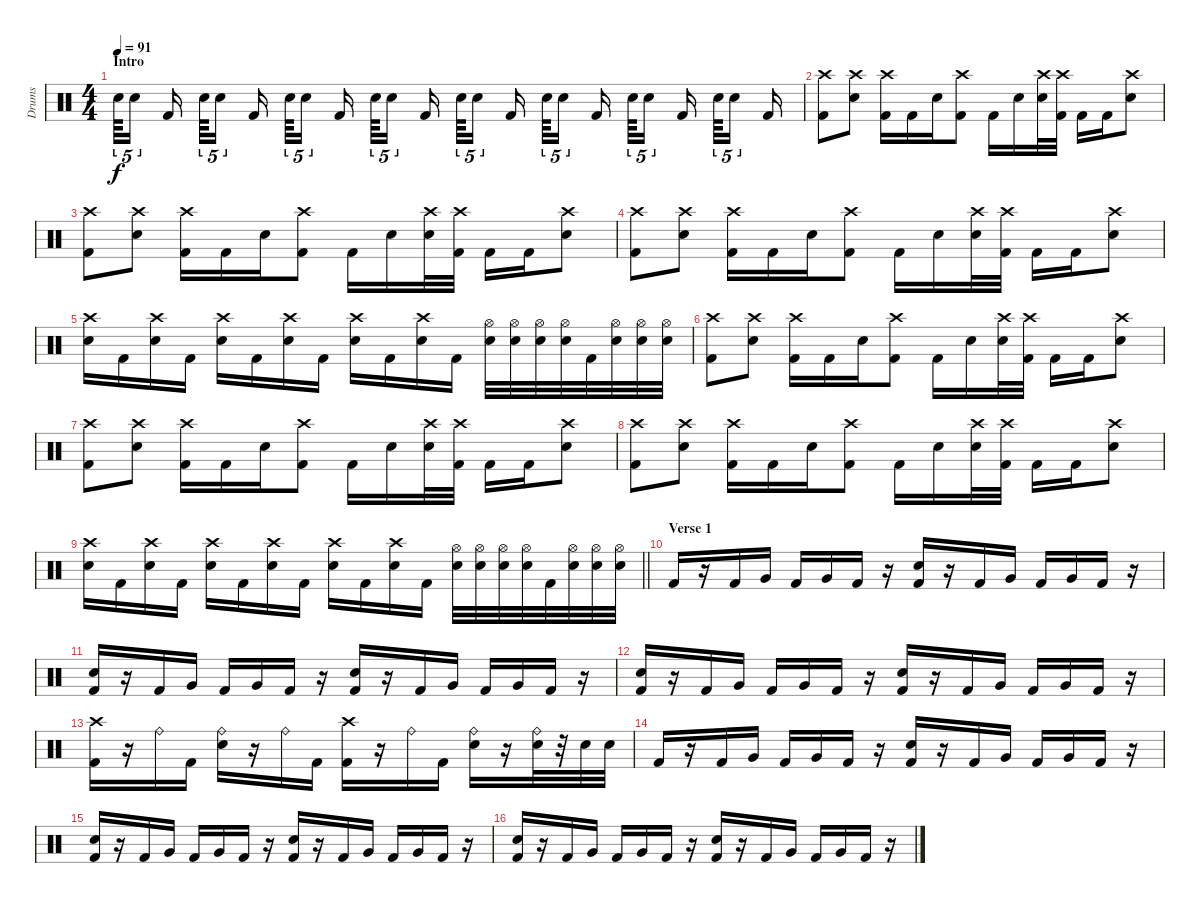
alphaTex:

\track ("Drums" "Drums") {instrument percussion}
\staff {score}
\articulation defaults
\ts (4 4)
\section ("" "Intro")
\tempo 91
\clef neutral
\ks c "Snare (hit) 2".64{tu (5 4) dy f} "Electric Snare (hit)".16{tu (5 4) beam splitsecondary} "Kick (hit) 2".16{beam splitsecondary} "Snare (hit) 2".64{tu (5 4)} "Electric Snare (hit)".16{tu (5 4) beam splitsecondary} "Kick (hit) 2".16 "Snare (hit) 2".64{tu (5 4)} "Electric Snare (hit)".16{tu (5 4) beam splitsecondary} "Kick (hit) 2".16{beam splitsecondary} "Snare (hit) 2".64{tu (5 4)} "Electric Snare (hit)".16{tu (5 4) beam splitsecondary} "Kick (hit) 2".16 "Snare (hit) 2".64{tu (5 4)} "Electric Snare (hit)".16{tu (5 4) beam splitsecondary} "Kick (hit) 2".16{beam splitsecondary} "Snare (hit) 2".64{tu (5 4)} "Electric Snare (hit)".16{tu (5 4) beam splitsecondary} "Kick (hit) 2".16 "Snare (hit) 2".64{tu (5 4)} "Electric Snare (hit)".16{tu (5 4) beam splitsecondary} "Kick (hit) 2".16{beam splitsecondary} "Snare (hit) 2".64{tu (5 4)} "Electric Snare (hit)".16{tu (5 4) beam splitsecondary} "Kick (hit) 2".16
|
("Crash high (hit)" "Kick (hit) 2").8 ("Crash high (hit)" "Electric Snare (hit)").8 ("Crash high (hit)" "Kick (hit) 2").16 "Kick (hit) 2".16 "Electric Snare (hit)".16 ("Crash high (hit)" "Kick (hit) 2").8 "Kick (hit) 2".16 "Electric Snare (hit)".16 ("Crash high (hit)" "Electric Snare (hit)").32 ("Crash high (hit)" "Kick (hit) 2").32 "Kick (hit) 2".16 "Kick (hit) 2".16 ("Crash high (hit)" "Electric Snare (hit)").8 |
("Crash high (hit)" "Kick (hit) 2").8 ("Crash high (hit)" "Electric Snare (hit)").8 ("Crash high (hit)" "Kick (hit) 2").16 "Kick (hit) 2".16 "Electric Snare (hit)".16 ("Crash high (hit)" "Kick (hit) 2").8 "Kick (hit) 2".16 "Electric Snare (hit)".16 ("Crash high (hit)" "Electric Snare (hit)").32 ("Crash high (hit)" "Kick (hit) 2").32 "Kick (hit) 2".16 "Kick (hit) 2".16 ("Crash high (hit)" "Electric Snare (hit)").8 |
("Crash high (hit)" "Kick (hit) 2").8 ("Crash high (hit)" "Electric Snare (hit)").8 ("Crash high (hit)" "Kick (hit) 2").16 "Kick (hit) 2".16 "Electric Snare (hit)".16 ("Crash high (hit)" "Kick (hit) 2").8 "Kick (hit) 2".16 "Electric Snare (hit)".16 ("Crash high (hit)" "Electric Snare (hit)").32 ("Crash high (hit)" "Kick (hit) 2").32 "Kick (hit) 2".16 "Kick (hit) 2".16 ("Crash high (hit)" "Electric Snare (hit)").8 |
("Crash high (hit)" "Electric Snare (hit)").16 "Kick (hit) 2".16 ("Crash high (hit)" "Electric Snare (hit)").16 "Kick (hit) 2".16 ("Crash high (hit)" "Electric Snare (hit)").16 "Kick (hit) 2".16 ("Crash high (hit)" "Electric Snare (hit)").16 "Kick (hit) 2".16 ("Crash high (hit)" "Electric Snare (hit)").16 "Kick (hit) 2".16 ("Crash high (hit)" "Electric Snare (hit)").16 "Kick (hit) 2".16 ("Hi-Hat (open)" "Electric Snare (hit)").32 ("Hi-Hat (open)" "Electric Snare (hit)").32 ("Hi-Hat (open)" "Electric Snare (hit)").32 ("Hi-Hat (open)" "Electric Snare (hit)").32 "Kick (hit) 2".32 ("Hi-Hat (open)" "Electric Snare (hit)").32 ("Hi-Hat (open)" "Electric Snare (hit)").32 ("Hi-Hat (open)" "Electric Snare (hit)").32 |
("Crash high (hit)" "Kick (hit) 2").8 ("Crash high (hit)" "Electric Snare (hit)").8 ("Crash high (hit)" "Kick (hit) 2").16 "Kick (hit) 2".16 "Electric Snare (hit)".16 ("Crash high (hit)" "Kick (hit) 2").8 "Kick (hit) 2".16 "Electric Snare (hit)".16 ("Crash high (hit)" "Electric Snare (hit)").32 ("Crash high (hit)" "Kick (hit) 2").32 "Kick (hit) 2".16 "Kick (hit) 2".16 ("Crash high (hit)" "Electric Snare (hit)").8 |
("Crash high (hit)" "Kick (hit) 2").8 ("Crash high (hit)" "Electric Snare (hit)").8 ("Crash high (hit)" "Kick (hit) 2").16 "Kick (hit) 2".16 "Electric Snare (hit)".16 ("Crash high (hit)" "Kick (hit) 2").8 "Kick (hit) 2".16 "Electric Snare (hit)".16 ("Crash high (hit)" "Electric Snare (hit)").32 ("Crash high (hit)" "Kick (hit) 2").32 "Kick (hit) 2".16 "Kick (hit) 2".16 ("Crash high (hit)" "Electric Snare (hit)").8 |
("Crash high (hit)" "Kick (hit) 2").8 ("Crash high (hit)" "Electric Snare (hit)").8 ("Crash high (hit)" "Kick (hit) 2").16 "Kick (hit) 2".16 "Electric Snare (hit)".16 ("Crash high (hit)" "Kick (hit) 2").8 "Kick (hit) 2".16 "Electric Snare (hit)".16 ("Crash high (hit)" "Electric Snare (hit)").32 ("Crash high (hit)" "Kick (hit) 2").32 "Kick (hit) 2".16 "Kick (hit) 2".16 ("Crash high (hit)" "Electric Snare (hit)").8 |
\barLineRight lightlight
("Crash high (hit)" "Electric Snare (hit)").16 "Kick (hit) 2".16 ("Crash high (hit)" "Electric Snare (hit)").16 "Kick (hit) 2".16 ("Crash high (hit)" "Electric Snare (hit)").16 "Kick (hit) 2".16 ("Crash high (hit)" "Electric Snare (hit)").16 "Kick (hit) 2".16 ("Crash high (hit)" "Electric Snare (hit)").16 "Kick (hit) 2".16 ("Crash high (hit)" "Electric Snare (hit)").16 "Kick (hit) 2".16 ("Hi-Hat (open)" "Electric Snare (hit)").32 ("Hi-Hat (open)" "Electric Snare (hit)").32 ("Hi-Hat (open)" "Electric Snare (hit)").32 ("Hi-Hat (open)" "Electric Snare (hit)").32 "Kick (hit) 2".32 ("Hi-Hat (open)" "Electric Snare (hit)").32 ("Hi-Hat (open)" "Electric Snare (hit)").32 ("Hi-Hat (open)" "Electric Snare (hit)").32 |
\section ("" "Verse 1")
"Kick (hit) 2".16 r.16 "Kick (hit) 2".16 "Very Low Tom (hit)".16 "Kick (hit) 2".16 "Very Low Tom (hit)".16 "Kick (hit) 2".16 r.16 ("Electric Snare (hit)" "Kick (hit) 2").16 r.16 "Kick (hit) 2".16 "Very Low Tom (hit)".16 "Kick (hit) 2".16 "Very Low Tom (hit)".16 "Kick (hit) 2".16 r.16 |
("Electric Snare (hit)" "Kick (hit) 2").16 r.16 "Kick (hit) 2".16 "Very Low Tom (hit)".16 "Kick (hit) 2".16 "Very Low Tom (hit)".16 "Kick (hit) 2".16 r.16 ("Electric Snare (hit)" "Kick (hit) 2").16 r.16 "Kick (hit) 2".16 "Very Low Tom (hit)".16 "Kick (hit) 2".16 "Very Low Tom (hit)".16 "Kick (hit) 2".16 r.16 |
("Electric Snare (hit)" "Kick (hit) 2").16 r.16 "Kick (hit) 2".16 "Very Low Tom (hit)".16 "Kick (hit) 2".16 "Very Low Tom (hit)".16 "Kick (hit) 2".16 r.16 ("Electric Snare (hit)" "Kick (hit) 2").16 r.16 "Kick (hit) 2".16 "Very Low Tom (hit)".16 "Kick (hit) 2".16 "Very Low Tom (hit)".16 "Kick (hit) 2".16 r.16 |
("Crash high (hit)" "Kick (hit) 2").16 r.16 "Ride (bell)".16 "Kick (hit) 2".16 ("Ride (bell)" "Electric Snare (hit)").16 r.16 "Ride (bell)".16 "Kick (hit) 2".16 ("Crash high (hit)" "Kick (hit) 2").16 r.16 "Ride (bell)".16 "Kick (hit) 2".16 ("Ride (bell)" "Electric Snare (hit)").16 r.16 ("Ride (bell)" "Electric Snare (hit)").32 r.32 "Electric Snare (hit)".32 "Electric Snare (hit)".32 |
"Kick (hit) 2".16 r.16 "Kick (hit) 2".16 "Very Low Tom (hit)".16 "Kick (hit) 2".16 "Very Low Tom (hit)".16 "Kick (hit) 2".16 r.16 ("Electric Snare (hit)" "Kick (hit) 2").16 r.16 "Kick (hit) 2".16 "Very Low Tom (hit)".16 "Kick (hit) 2".16 "Very Low Tom (hit)".16 "Kick (hit) 2".16 r.16 |
("Electric Snare (hit)" "Kick (hit) 2").16 r.16 "Kick (hit) 2".16 "Very Low Tom (hit)".16 "Kick (hit) 2".16 "Very Low Tom (hit)".16 "Kick (hit) 2".16 r.16 ("Electric Snare (hit)" "Kick (hit) 2").16 r.16 "Kick (hit) 2".16 "Very Low Tom (hit)".16 "Kick (hit) 2".16 "Very Low Tom (hit)".16 "Kick (hit) 2".16 r.16 |
("Electric Snare (hit)" "Kick (hit) 2").16 r.16 "Kick (hit) 2".16 "Very Low Tom (hit)".16 "Kick (hit) 2".16 "Very Low Tom (hit)".16 "Kick (hit) 2".16 r.16 ("Electric Snare (hit)" "Kick (hit) 2").16 r.16 "Kick (hit) 2".16 "Very Low Tom (hit)".16 "Kick (hit) 2".16 "Very Low Tom (hit)".16 "Kick (hit) 2".16 r.16
